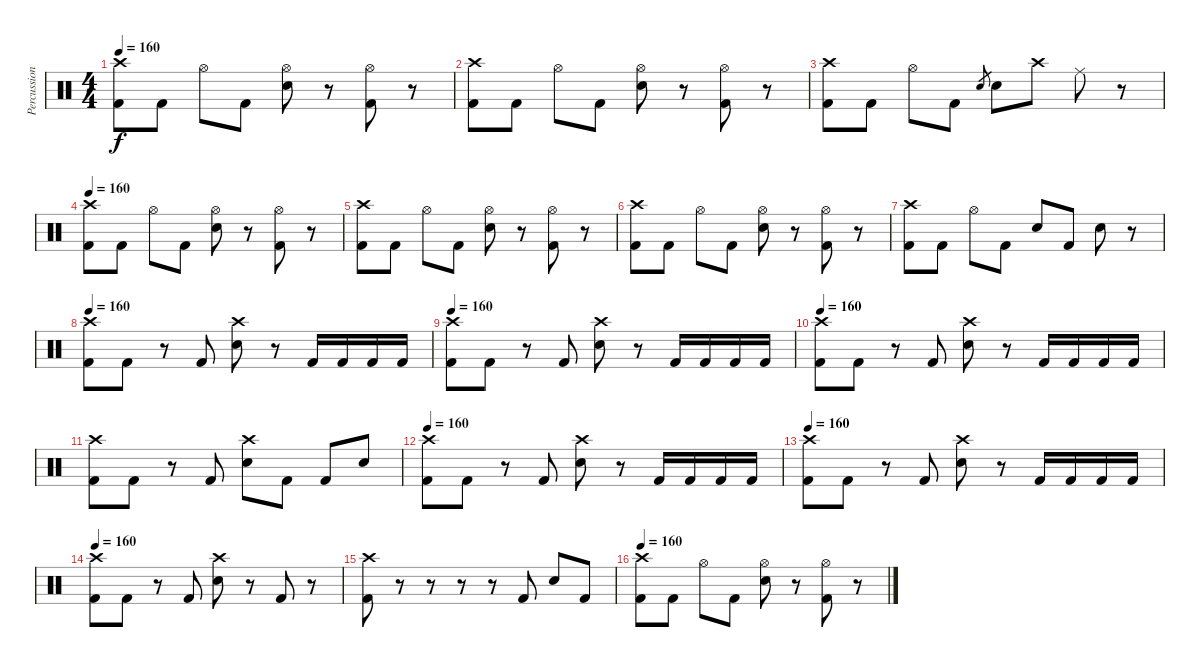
\track ("Percussions" "Percussion") {instrument percussion}
\staff {score}
\articulation defaults
\ts (4 4)
\tempo 160
\clef neutral
\ks c
("Kick (hit) 2" "Crash high (hit)").8{dy f} "Kick (hit) 2".8 "Hi-Hat (open)".8 "Kick (hit) 2".8 ("Electric Snare (hit)" "Hi-Hat (open)").8 r.8 ("Kick (hit) 2" "Hi-Hat (open)").8 r.8 |
("Kick (hit) 2" "Crash high (hit)").8 "Kick (hit) 2".8 "Hi-Hat (open)".8 "Kick (hit) 2".8 ("Electric Snare (hit)" "Hi-Hat (open)").8 r.8 ("Kick (hit) 2" "Hi-Hat (open)").8 r.8 |
("Kick (hit) 2" "Crash high (hit)").8 "Kick (hit) 2".8 "Hi-Hat (open)".8 "Kick (hit) 2".8 "Electric Snare (hit)".8{gr} "Electric Snare (hit)".8 "Crash high (hit)".8 "Ride (middle)".8 r.8 |
\tempo 160
("Kick (hit) 2" "Crash high (hit)").8 "Kick (hit) 2".8 "Hi-Hat (open)".8 "Kick (hit) 2".8 ("Electric Snare (hit)" "Hi-Hat (open)").8 r.8 ("Kick (hit) 2" "Hi-Hat (open)").8 r.8 |
("Kick (hit) 2" "Crash high (hit)").8 "Kick (hit) 2".8 "Hi-Hat (open)".8 "Kick (hit) 2".8 ("Electric Snare (hit)" "Hi-Hat (open)").8 r.8 ("Kick (hit) 2" "Hi-Hat (open)").8 r.8 |
("Kick (hit) 2" "Crash high (hit)").8 "Kick (hit) 2".8 "Hi-Hat (open)".8 "Kick (hit) 2".8 ("Electric Snare (hit)" "Hi-Hat (open)").8 r.8 ("Kick (hit) 2" "Hi-Hat (open)").8 r.8 |
("Kick (hit) 2" "Crash high (hit)").8 "Kick (hit) 2".8 "Hi-Hat (open)".8 "Kick (hit) 2".8 "Electric Snare (hit)".8 "Kick (hit) 2".8 "Electric Snare (hit)".8 r.8 |
\tempo 160
("Kick (hit) 2" "Crash high (hit)").8 "Kick (hit) 2".8 r.8 "Kick (hit) 2".8 ("Electric Snare (hit)" "Crash high (hit)").8 r.8 "Kick (hit) 2".16 "Kick (hit) 2".16 "Kick (hit) 2".16 "Kick (hit) 2".16 |
\tempo 160
("Kick (hit) 2" "Crash high (hit)").8 "Kick (hit) 2".8 r.8 "Kick (hit) 2".8 ("Electric Snare (hit)" "Crash high (hit)").8 r.8 "Kick (hit) 2".16 "Kick (hit) 2".16 "Kick (hit) 2".16 "Kick (hit) 2".16 |
\tempo 160
("Kick (hit) 2" "Crash high (hit)").8 "Kick (hit) 2".8 r.8 "Kick (hit) 2".8 ("Electric Snare (hit)" "Crash high (hit)").8 r.8 "Kick (hit) 2".16 "Kick (hit) 2".16 "Kick (hit) 2".16 "Kick (hit) 2".16 |
("Kick (hit) 2" "Crash high (hit)").8 "Kick (hit) 2".8 r.8 "Kick (hit) 2".8 ("Electric Snare (hit)" "Crash high (hit)").8 "Kick (hit) 2".8 "Kick (hit) 2".8 "Electric Snare (hit)".8 |
\tempo 160
("Kick (hit) 2" "Crash high (hit)").8 "Kick (hit) 2".8 r.8 "Kick (hit) 2".8 ("Electric Snare (hit)" "Crash high (hit)").8 r.8 "Kick (hit) 2".16 "Kick (hit) 2".16 "Kick (hit) 2".16 "Kick (hit) 2".16 |
\tempo 160
("Kick (hit) 2" "Crash high (hit)").8 "Kick (hit) 2".8 r.8 "Kick (hit) 2".8 ("Electric Snare (hit)" "Crash high (hit)").8 r.8 "Kick (hit) 2".16 "Kick (hit) 2".16 "Kick (hit) 2".16 "Kick (hit) 2".16 |
\tempo 160
("Kick (hit) 2" "Crash high (hit)").8 "Kick (hit) 2".8 r.8 "Kick (hit) 2".8 ("Electric Snare (hit)" "Crash high (hit)").8 r.8 "Kick (hit) 2".8 r.8 |
("Kick (hit) 2" "Crash high (hit)").8 r.8 r.8 r.8 r.8 "Kick (hit) 2".8 "Electric Snare (hit)".8 "Kick (hit) 2".8 |
\tempo 160
("Kick (hit) 2" "Crash high (hit)").8 "Kick (hit) 2".8 "Hi-Hat (open)".8 "Kick (hit) 2".8 ("Electric Snare (hit)" "Hi-Hat (open)").8 r.8 ("Kick (hit) 2" "Hi-Hat (open)").8 r.8
